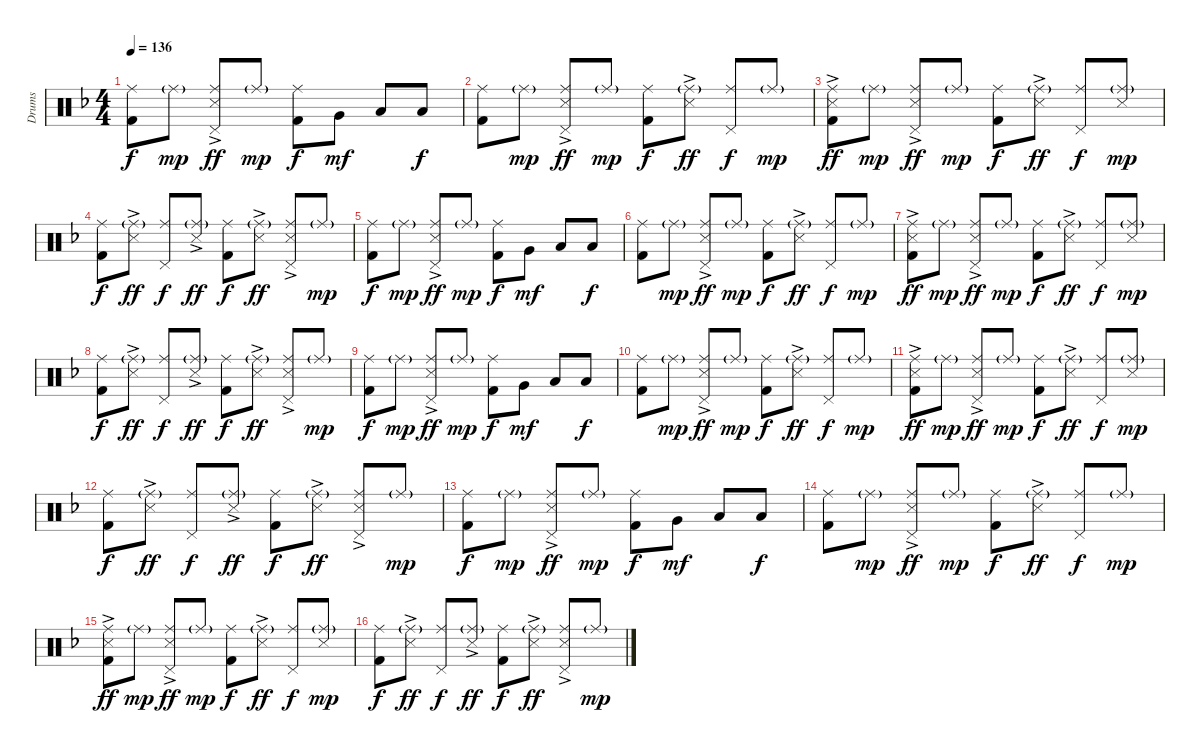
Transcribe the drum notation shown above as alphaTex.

\track ("Drums" "Drums") {instrument percussion}
\staff {score}
\articulation defaults
\ts (4 4)
\tempo 136
\clef neutral
\ks f
("Ride (middle)" "Kick (hit) 2").8{dy f} "Ride (middle)"{g}.8{dy mp} ("Ride (middle)" "Snare (side stick) 3"{ac} "Pedal Hi-Hat (hit)").8{dy ff} "Ride (middle)"{g}.8{dy mp} ("Ride (middle)" "Kick (hit) 2").8{dy f} "Very Low Tom (hit)".8{dy mf} "Low Floor Tom (hit)".8 "Low Floor Tom (hit)".8{dy f} |
("Ride (middle)" "Kick (hit) 2").8 "Ride (middle)"{g}.8{dy mp} ("Ride (middle)" "Snare (side stick) 3"{ac} "Pedal Hi-Hat (hit)").8{dy ff} "Ride (middle)"{g}.8{dy mp} ("Ride (middle)" "Kick (hit) 2").8{dy f} ("Ride (middle)"{g} "Snare (side stick) 3"{ac}).8{dy ff} ("Ride (middle)" "Pedal Hi-Hat (hit)").8{dy f} "Ride (middle)"{g}.8{dy mp} |
("Ride (middle)" "Snare (side stick) 3"{ac} "Kick (hit) 2").8{dy ff} "Ride (middle)"{g}.8{dy mp} ("Ride (middle)" "Snare (side stick) 3"{ac} "Pedal Hi-Hat (hit)").8{dy ff} "Ride (middle)"{g}.8{dy mp} ("Ride (middle)" "Kick (hit) 2").8{dy f} ("Ride (middle)"{g} "Snare (side stick) 3"{ac}).8{dy ff} ("Ride (middle)" "Pedal Hi-Hat (hit)").8{dy f} ("Ride (middle)"{g} "Snare (side stick) 3").8{dy mp} |
("Ride (middle)" "Kick (hit) 2").8{dy f} ("Ride (middle)"{g} "Snare (side stick) 3"{ac}).8{dy ff} ("Ride (middle)" "Pedal Hi-Hat (hit)").8{dy f} ("Ride (middle)"{g} "Snare (side stick) 3"{ac}).8{dy ff} ("Ride (middle)" "Kick (hit) 2").8{dy f} ("Ride (middle)"{g} "Snare (side stick) 3"{ac}).8{dy ff} ("Ride (middle)" "Snare (side stick) 3"{ac} "Pedal Hi-Hat (hit)").8 "Ride (middle)"{g}.8{dy mp} |
("Ride (middle)" "Kick (hit) 2").8{dy f} "Ride (middle)"{g}.8{dy mp} ("Ride (middle)" "Snare (side stick) 3"{ac} "Pedal Hi-Hat (hit)").8{dy ff} "Ride (middle)"{g}.8{dy mp} ("Ride (middle)" "Kick (hit) 2").8{dy f} "Very Low Tom (hit)".8{dy mf} "Low Floor Tom (hit)".8 "Low Floor Tom (hit)".8{dy f} |
("Ride (middle)" "Kick (hit) 2").8 "Ride (middle)"{g}.8{dy mp} ("Ride (middle)" "Snare (side stick) 3"{ac} "Pedal Hi-Hat (hit)").8{dy ff} "Ride (middle)"{g}.8{dy mp} ("Ride (middle)" "Kick (hit) 2").8{dy f} ("Ride (middle)"{g} "Snare (side stick) 3"{ac}).8{dy ff} ("Ride (middle)" "Pedal Hi-Hat (hit)").8{dy f} "Ride (middle)"{g}.8{dy mp} |
("Ride (middle)" "Snare (side stick) 3"{ac} "Kick (hit) 2").8{dy ff} "Ride (middle)"{g}.8{dy mp} ("Ride (middle)" "Snare (side stick) 3"{ac} "Pedal Hi-Hat (hit)").8{dy ff} "Ride (middle)"{g}.8{dy mp} ("Ride (middle)" "Kick (hit) 2").8{dy f} ("Ride (middle)"{g} "Snare (side stick) 3"{ac}).8{dy ff} ("Ride (middle)" "Pedal Hi-Hat (hit)").8{dy f} ("Ride (middle)"{g} "Snare (side stick) 3").8{dy mp} |
("Ride (middle)" "Kick (hit) 2").8{dy f} ("Ride (middle)"{g} "Snare (side stick) 3"{ac}).8{dy ff} ("Ride (middle)" "Pedal Hi-Hat (hit)").8{dy f} ("Ride (middle)"{g} "Snare (side stick) 3"{ac}).8{dy ff} ("Ride (middle)" "Kick (hit) 2").8{dy f} ("Ride (middle)"{g} "Snare (side stick) 3"{ac}).8{dy ff} ("Ride (middle)" "Snare (side stick) 3"{ac} "Pedal Hi-Hat (hit)").8 "Ride (middle)"{g}.8{dy mp} |
("Ride (middle)" "Kick (hit) 2").8{dy f} "Ride (middle)"{g}.8{dy mp} ("Ride (middle)" "Snare (side stick) 3"{ac} "Pedal Hi-Hat (hit)").8{dy ff} "Ride (middle)"{g}.8{dy mp} ("Ride (middle)" "Kick (hit) 2").8{dy f} "Very Low Tom (hit)".8{dy mf} "Low Floor Tom (hit)".8 "Low Floor Tom (hit)".8{dy f} |
("Ride (middle)" "Kick (hit) 2").8 "Ride (middle)"{g}.8{dy mp} ("Ride (middle)" "Snare (side stick) 3"{ac} "Pedal Hi-Hat (hit)").8{dy ff} "Ride (middle)"{g}.8{dy mp} ("Ride (middle)" "Kick (hit) 2").8{dy f} ("Ride (middle)"{g} "Snare (side stick) 3"{ac}).8{dy ff} ("Ride (middle)" "Pedal Hi-Hat (hit)").8{dy f} "Ride (middle)"{g}.8{dy mp} |
("Ride (middle)" "Snare (side stick) 3"{ac} "Kick (hit) 2").8{dy ff} "Ride (middle)"{g}.8{dy mp} ("Ride (middle)" "Snare (side stick) 3"{ac} "Pedal Hi-Hat (hit)").8{dy ff} "Ride (middle)"{g}.8{dy mp} ("Ride (middle)" "Kick (hit) 2").8{dy f} ("Ride (middle)"{g} "Snare (side stick) 3"{ac}).8{dy ff} ("Ride (middle)" "Pedal Hi-Hat (hit)").8{dy f} ("Ride (middle)"{g} "Snare (side stick) 3").8{dy mp} |
("Ride (middle)" "Kick (hit) 2").8{dy f} ("Ride (middle)"{g} "Snare (side stick) 3"{ac}).8{dy ff} ("Ride (middle)" "Pedal Hi-Hat (hit)").8{dy f} ("Ride (middle)"{g} "Snare (side stick) 3"{ac}).8{dy ff} ("Ride (middle)" "Kick (hit) 2").8{dy f} ("Ride (middle)"{g} "Snare (side stick) 3"{ac}).8{dy ff} ("Ride (middle)" "Snare (side stick) 3"{ac} "Pedal Hi-Hat (hit)").8 "Ride (middle)"{g}.8{dy mp} |
("Ride (middle)" "Kick (hit) 2").8{dy f} "Ride (middle)"{g}.8{dy mp} ("Ride (middle)" "Snare (side stick) 3"{ac} "Pedal Hi-Hat (hit)").8{dy ff} "Ride (middle)"{g}.8{dy mp} ("Ride (middle)" "Kick (hit) 2").8{dy f} "Very Low Tom (hit)".8{dy mf} "Low Floor Tom (hit)".8 "Low Floor Tom (hit)".8{dy f} |
("Ride (middle)" "Kick (hit) 2").8 "Ride (middle)"{g}.8{dy mp} ("Ride (middle)" "Snare (side stick) 3"{ac} "Pedal Hi-Hat (hit)").8{dy ff} "Ride (middle)"{g}.8{dy mp} ("Ride (middle)" "Kick (hit) 2").8{dy f} ("Ride (middle)"{g} "Snare (side stick) 3"{ac}).8{dy ff} ("Ride (middle)" "Pedal Hi-Hat (hit)").8{dy f} "Ride (middle)"{g}.8{dy mp} |
("Ride (middle)" "Snare (side stick) 3"{ac} "Kick (hit) 2").8{dy ff} "Ride (middle)"{g}.8{dy mp} ("Ride (middle)" "Snare (side stick) 3"{ac} "Pedal Hi-Hat (hit)").8{dy ff} "Ride (middle)"{g}.8{dy mp} ("Ride (middle)" "Kick (hit) 2").8{dy f} ("Ride (middle)"{g} "Snare (side stick) 3"{ac}).8{dy ff} ("Ride (middle)" "Pedal Hi-Hat (hit)").8{dy f} ("Ride (middle)"{g} "Snare (side stick) 3").8{dy mp} |
("Ride (middle)" "Kick (hit) 2").8{dy f} ("Ride (middle)"{g} "Snare (side stick) 3"{ac}).8{dy ff} ("Ride (middle)" "Pedal Hi-Hat (hit)").8{dy f} ("Ride (middle)"{g} "Snare (side stick) 3"{ac}).8{dy ff} ("Ride (middle)" "Kick (hit) 2").8{dy f} ("Ride (middle)"{g} "Snare (side stick) 3"{ac}).8{dy ff} ("Ride (middle)" "Snare (side stick) 3"{ac} "Pedal Hi-Hat (hit)").8 "Ride (middle)"{g}.8{dy mp}
